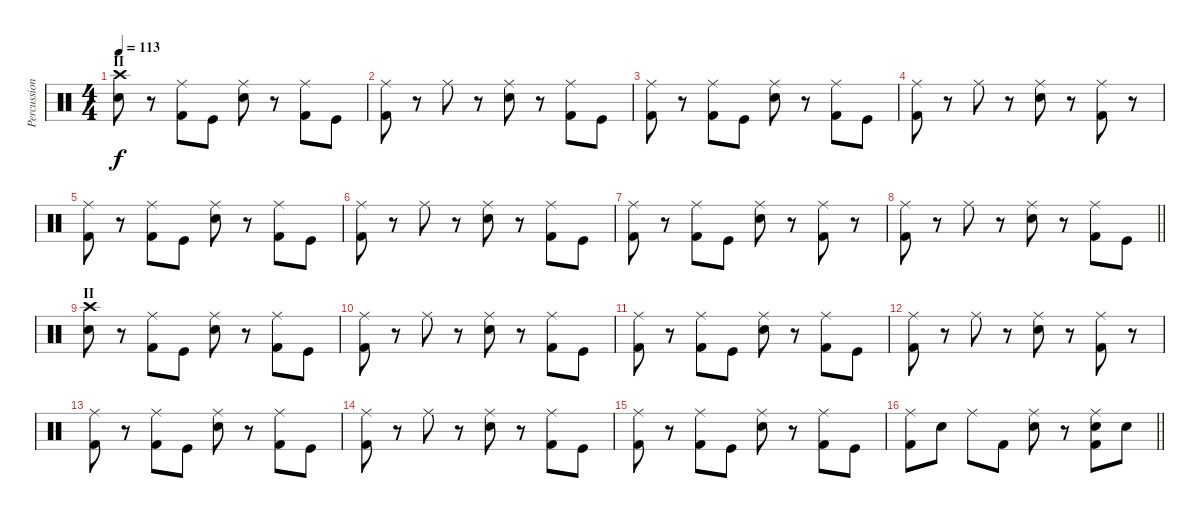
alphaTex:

\track ("Percussion" "Percussion") {instrument percussion}
\staff {score}
\articulation defaults
\ts (4 4)
\section ("" "II")
\tempo 113
\clef neutral
\ks c
("Crash high (hit)" "Electric Snare (hit)").8{dy f} r.8 ("Kick (hit) 2" "Ride (middle)").8 "Kick (hit)".8 ("Electric Snare (hit)" "Ride (middle)").8 r.8 ("Kick (hit) 2" "Ride (middle)").8 "Kick (hit)".8 |
("Kick (hit) 2" "Ride (middle)").8 r.8 "Ride (middle)".8 r.8 ("Electric Snare (hit)" "Ride (middle)").8 r.8 ("Kick (hit) 2" "Ride (middle)").8 "Kick (hit)".8 |
("Kick (hit) 2" "Ride (middle)").8 r.8 ("Kick (hit) 2" "Ride (middle)").8 "Kick (hit)".8 ("Electric Snare (hit)" "Ride (middle)").8 r.8 ("Kick (hit) 2" "Ride (middle)").8 "Kick (hit)".8 |
("Kick (hit) 2" "Ride (middle)").8 r.8 "Ride (middle)".8 r.8 ("Electric Snare (hit)" "Ride (middle)").8 r.8 ("Kick (hit) 2" "Ride (middle)").8 r.8 |
("Kick (hit) 2" "Ride (middle)").8 r.8 ("Kick (hit) 2" "Ride (middle)").8 "Kick (hit)".8 ("Electric Snare (hit)" "Ride (middle)").8 r.8 ("Kick (hit) 2" "Ride (middle)").8 "Kick (hit)".8 |
("Kick (hit) 2" "Ride (middle)").8 r.8 "Ride (middle)".8 r.8 ("Electric Snare (hit)" "Ride (middle)").8 r.8 ("Kick (hit) 2" "Ride (middle)").8 "Kick (hit)".8 |
("Kick (hit) 2" "Ride (middle)").8 r.8 ("Kick (hit) 2" "Ride (middle)").8 "Kick (hit)".8 ("Electric Snare (hit)" "Ride (middle)").8 r.8 ("Kick (hit) 2" "Ride (middle)").8 r.8 |
\barLineRight lightlight
("Kick (hit) 2" "Ride (middle)").8 r.8 "Ride (middle)".8 r.8 ("Electric Snare (hit)" "Ride (middle)").8 r.8 ("Kick (hit) 2" "Ride (middle)").8 "Kick (hit)".8 |
\section ("" "II")
("Crash high (hit)" "Electric Snare (hit)").8 r.8 ("Kick (hit) 2" "Ride (middle)").8 "Kick (hit)".8 ("Electric Snare (hit)" "Ride (middle)").8 r.8 ("Kick (hit) 2" "Ride (middle)").8 "Kick (hit)".8 |
("Kick (hit) 2" "Ride (middle)").8 r.8 "Ride (middle)".8 r.8 ("Electric Snare (hit)" "Ride (middle)").8 r.8 ("Kick (hit) 2" "Ride (middle)").8 "Kick (hit)".8 |
("Kick (hit) 2" "Ride (middle)").8 r.8 ("Kick (hit) 2" "Ride (middle)").8 "Kick (hit)".8 ("Electric Snare (hit)" "Ride (middle)").8 r.8 ("Kick (hit) 2" "Ride (middle)").8 "Kick (hit)".8 |
("Kick (hit) 2" "Ride (middle)").8 r.8 "Ride (middle)".8 r.8 ("Electric Snare (hit)" "Ride (middle)").8 r.8 ("Kick (hit) 2" "Ride (middle)").8 r.8 |
("Kick (hit) 2" "Ride (middle)").8 r.8 ("Kick (hit) 2" "Ride (middle)").8 "Kick (hit)".8 ("Electric Snare (hit)" "Ride (middle)").8 r.8 ("Kick (hit) 2" "Ride (middle)").8 "Kick (hit)".8 |
("Kick (hit) 2" "Ride (middle)").8 r.8 "Ride (middle)".8 r.8 ("Electric Snare (hit)" "Ride (middle)").8 r.8 ("Kick (hit) 2" "Ride (middle)").8 "Kick (hit)".8 |
("Kick (hit) 2" "Ride (middle)").8 r.8 ("Kick (hit) 2" "Ride (middle)").8 "Kick (hit)".8 ("Electric Snare (hit)" "Ride (middle)").8 r.8 ("Kick (hit) 2" "Ride (middle)").8 "Kick (hit)".8 |
\barLineRight lightlight
("Kick (hit) 2" "Ride (middle)").8 "Electric Snare (hit)".8 "Ride (middle)".8 "Kick (hit) 2".8 ("Electric Snare (hit)" "Ride (middle)").8 r.8 ("Electric Snare (hit)" "Kick (hit) 2" "Ride (middle)").8 "Electric Snare (hit)".8
